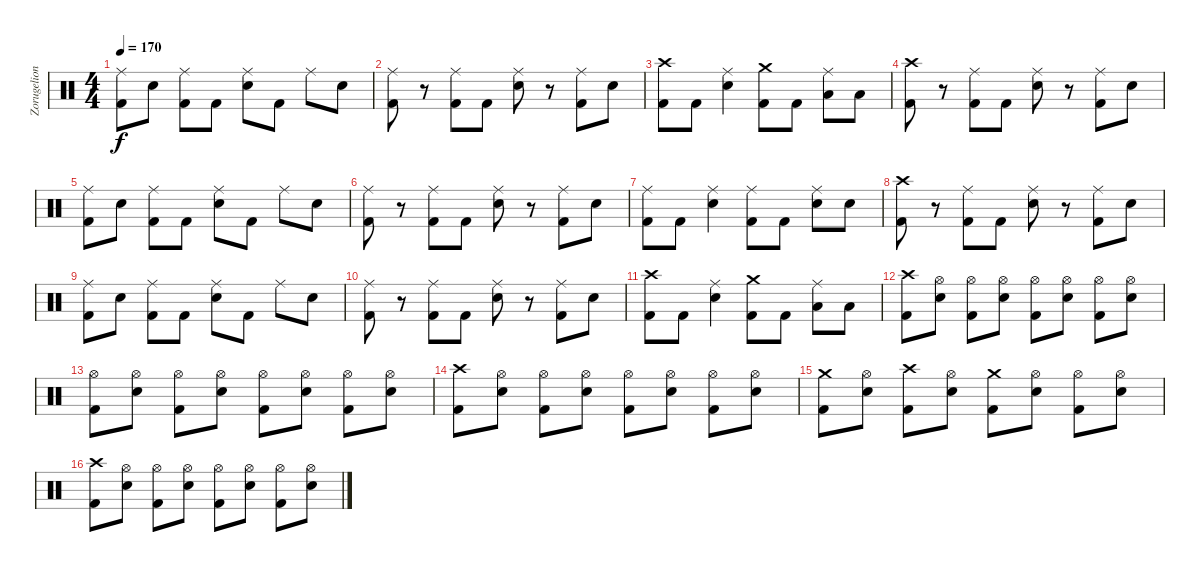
\track ("Zorugelion" "Zorugelion") {instrument percussion}
\staff {score}
\articulation defaults
\ts (4 4)
\tempo 170
\clef neutral
\ks c
("Ride (middle)" "Kick (hit) 2").8{dy f} "Electric Snare (hit)".8 ("Ride (middle)" "Kick (hit) 2").8 "Kick (hit) 2".8 ("Ride (middle)" "Electric Snare (hit)").8 "Kick (hit) 2".8 "Ride (middle)".8 "Electric Snare (hit)".8 |
("Ride (middle)" "Kick (hit) 2").8 r.8 ("Ride (middle)" "Kick (hit) 2").8 "Kick (hit) 2".8 ("Ride (middle)" "Electric Snare (hit)").8 r.8 ("Ride (middle)" "Kick (hit) 2").8 "Electric Snare (hit)".8 |
("Crash high (hit)" "Kick (hit) 2").8 "Kick (hit) 2".8 ("Ride (middle)" "Electric Snare (hit)").4 ("Crash medium (hit)" "Kick (hit) 2").8 "Kick (hit) 2".8 ("Ride (middle)" "Low Tom (hit)").8 "Low Tom (hit)".8 |
("Crash high (hit)" "Kick (hit) 2").8 r.8 ("Ride (middle)" "Kick (hit) 2").8 "Kick (hit) 2".8 ("Ride (middle)" "Electric Snare (hit)").8 r.8 ("Ride (middle)" "Kick (hit) 2").8 "Electric Snare (hit)".8 |
("Ride (middle)" "Kick (hit) 2").8 "Electric Snare (hit)".8 ("Ride (middle)" "Kick (hit) 2").8 "Kick (hit) 2".8 ("Ride (middle)" "Electric Snare (hit)").8 "Kick (hit) 2".8 "Ride (middle)".8 "Electric Snare (hit)".8 |
("Ride (middle)" "Kick (hit) 2").8 r.8 ("Ride (middle)" "Kick (hit) 2").8 "Kick (hit) 2".8 ("Ride (middle)" "Electric Snare (hit)").8 r.8 ("Ride (middle)" "Kick (hit) 2").8 "Electric Snare (hit)".8 |
("Ride (middle)" "Kick (hit) 2").8 "Kick (hit) 2".8 ("Ride (middle)" "Electric Snare (hit)").4 ("Ride (middle)" "Kick (hit) 2").8 "Kick (hit) 2".8 ("Ride (middle)" "Electric Snare (hit)").8 "Electric Snare (hit)".8 |
("Crash high (hit)" "Kick (hit) 2").8 r.8 ("Ride (middle)" "Kick (hit) 2").8 "Kick (hit) 2".8 ("Ride (middle)" "Electric Snare (hit)").8 r.8 ("Ride (middle)" "Kick (hit) 2").8 "Electric Snare (hit)".8 |
("Ride (middle)" "Kick (hit) 2").8 "Electric Snare (hit)".8 ("Ride (middle)" "Kick (hit) 2").8 "Kick (hit) 2".8 ("Ride (middle)" "Electric Snare (hit)").8 "Kick (hit) 2".8 "Ride (middle)".8 "Electric Snare (hit)".8 |
("Ride (middle)" "Kick (hit) 2").8 r.8 ("Ride (middle)" "Kick (hit) 2").8 "Kick (hit) 2".8 ("Ride (middle)" "Electric Snare (hit)").8 r.8 ("Ride (middle)" "Kick (hit) 2").8 "Electric Snare (hit)".8 |
("Crash high (hit)" "Kick (hit) 2").8 "Kick (hit) 2".8 ("Ride (middle)" "Electric Snare (hit)").4 ("Crash medium (hit)" "Kick (hit) 2").8 "Kick (hit) 2".8 ("Ride (middle)" "Low Tom (hit)").8 "Low Tom (hit)".8 |
("Crash high (hit)" "Kick (hit) 2").8 ("Hi-Hat (open)" "Electric Snare (hit)").8 ("Hi-Hat (open)" "Kick (hit) 2").8 ("Hi-Hat (open)" "Electric Snare (hit)").8 ("Hi-Hat (open)" "Kick (hit) 2").8 ("Hi-Hat (open)" "Electric Snare (hit)").8 ("Hi-Hat (open)" "Kick (hit) 2").8 ("Hi-Hat (open)" "Electric Snare (hit)").8 |
("Hi-Hat (open)" "Kick (hit) 2").8 ("Hi-Hat (open)" "Electric Snare (hit)").8 ("Hi-Hat (open)" "Kick (hit) 2").8 ("Hi-Hat (open)" "Electric Snare (hit)").8 ("Hi-Hat (open)" "Kick (hit) 2").8 ("Hi-Hat (open)" "Electric Snare (hit)").8 ("Hi-Hat (open)" "Kick (hit) 2").8 ("Hi-Hat (open)" "Electric Snare (hit)").8 |
("Crash high (hit)" "Kick (hit) 2").8 ("Hi-Hat (open)" "Electric Snare (hit)").8 ("Hi-Hat (open)" "Kick (hit) 2").8 ("Hi-Hat (open)" "Electric Snare (hit)").8 ("Hi-Hat (open)" "Kick (hit) 2").8 ("Hi-Hat (open)" "Electric Snare (hit)").8 ("Hi-Hat (open)" "Kick (hit) 2").8 ("Hi-Hat (open)" "Electric Snare (hit)").8 |
("Crash medium (hit)" "Kick (hit) 2").8 ("Hi-Hat (open)" "Electric Snare (hit)").8 ("Crash high (hit)" "Kick (hit) 2").8 ("Hi-Hat (open)" "Electric Snare (hit)").8 ("Crash medium (hit)" "Kick (hit) 2").8 ("Hi-Hat (open)" "Electric Snare (hit)").8 ("Hi-Hat (open)" "Kick (hit) 2").8 ("Hi-Hat (open)" "Electric Snare (hit)").8 |
("Crash high (hit)" "Kick (hit) 2").8 ("Hi-Hat (open)" "Electric Snare (hit)").8 ("Hi-Hat (open)" "Kick (hit) 2").8 ("Hi-Hat (open)" "Electric Snare (hit)").8 ("Hi-Hat (open)" "Kick (hit) 2").8 ("Hi-Hat (open)" "Electric Snare (hit)").8 ("Hi-Hat (open)" "Kick (hit) 2").8 ("Hi-Hat (open)" "Electric Snare (hit)").8
